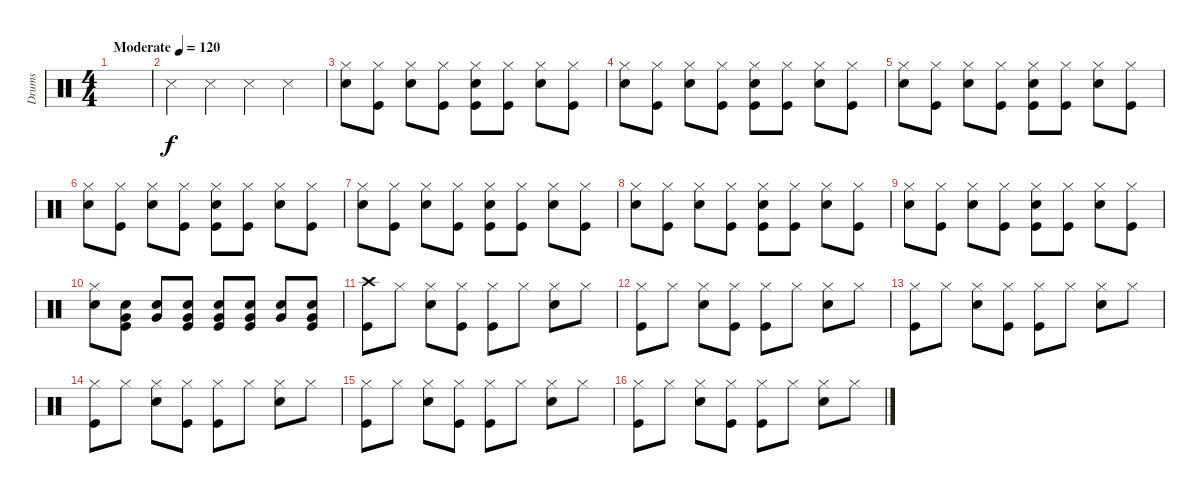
\track ("Drums" "Drums") {instrument percussion}
\staff {score}
\articulation defaults
\ts (4 4)
\tempo (120 "Moderate")
\clef neutral
\ks c
|
"Snare (side stick) 3".4 "Snare (side stick) 3".4 "Snare (side stick) 3".4 "Snare (side stick) 3".4 |
("Electric Snare (hit)" "Hi-Hat (closed)").8 ("Kick (hit)" "Hi-Hat (closed)").8 ("Electric Snare (hit)" "Hi-Hat (closed)").8 ("Kick (hit)" "Hi-Hat (closed)").8 ("Kick (hit)" "Electric Snare (hit)" "Hi-Hat (closed)").8 ("Kick (hit)" "Hi-Hat (closed)").8 ("Electric Snare (hit)" "Hi-Hat (closed)").8 ("Kick (hit)" "Hi-Hat (closed)").8 |
("Electric Snare (hit)" "Hi-Hat (closed)").8 ("Kick (hit)" "Hi-Hat (closed)").8 ("Electric Snare (hit)" "Hi-Hat (closed)").8 ("Kick (hit)" "Hi-Hat (closed)").8 ("Kick (hit)" "Electric Snare (hit)" "Hi-Hat (closed)").8 ("Kick (hit)" "Hi-Hat (closed)").8 ("Electric Snare (hit)" "Hi-Hat (closed)").8 ("Kick (hit)" "Hi-Hat (closed)").8 |
("Electric Snare (hit)" "Hi-Hat (closed)").8 ("Kick (hit)" "Hi-Hat (closed)").8 ("Electric Snare (hit)" "Hi-Hat (closed)").8 ("Kick (hit)" "Hi-Hat (closed)").8 ("Kick (hit)" "Electric Snare (hit)" "Hi-Hat (closed)").8 ("Kick (hit)" "Hi-Hat (closed)").8 ("Electric Snare (hit)" "Hi-Hat (closed)").8 ("Kick (hit)" "Hi-Hat (closed)").8 |
("Electric Snare (hit)" "Hi-Hat (closed)").8 ("Kick (hit)" "Hi-Hat (closed)").8 ("Electric Snare (hit)" "Hi-Hat (closed)").8 ("Kick (hit)" "Hi-Hat (closed)").8 ("Kick (hit)" "Electric Snare (hit)" "Hi-Hat (closed)").8 ("Kick (hit)" "Hi-Hat (closed)").8 ("Electric Snare (hit)" "Hi-Hat (closed)").8 ("Kick (hit)" "Hi-Hat (closed)").8 |
("Electric Snare (hit)" "Hi-Hat (closed)").8 ("Kick (hit)" "Hi-Hat (closed)").8 ("Electric Snare (hit)" "Hi-Hat (closed)").8 ("Kick (hit)" "Hi-Hat (closed)").8 ("Kick (hit)" "Electric Snare (hit)" "Hi-Hat (closed)").8 ("Kick (hit)" "Hi-Hat (closed)").8 ("Electric Snare (hit)" "Hi-Hat (closed)").8 ("Kick (hit)" "Hi-Hat (closed)").8 |
("Electric Snare (hit)" "Hi-Hat (closed)").8 ("Kick (hit)" "Hi-Hat (closed)").8 ("Electric Snare (hit)" "Hi-Hat (closed)").8 ("Kick (hit)" "Hi-Hat (closed)").8 ("Kick (hit)" "Electric Snare (hit)" "Hi-Hat (closed)").8 ("Kick (hit)" "Hi-Hat (closed)").8 ("Electric Snare (hit)" "Hi-Hat (closed)").8 ("Kick (hit)" "Hi-Hat (closed)").8 |
("Electric Snare (hit)" "Hi-Hat (closed)").8 ("Kick (hit)" "Hi-Hat (closed)").8 ("Electric Snare (hit)" "Hi-Hat (closed)").8 ("Kick (hit)" "Hi-Hat (closed)").8 ("Kick (hit)" "Electric Snare (hit)" "Hi-Hat (closed)").8 ("Kick (hit)" "Hi-Hat (closed)").8 ("Electric Snare (hit)" "Hi-Hat (closed)").8 ("Kick (hit)" "Hi-Hat (closed)").8 |
("Electric Snare (hit)" "Hi-Hat (closed)").8 ("Kick (hit)" "Electric Snare (hit)" "Very Low Tom (hit)").8 ("Electric Snare (hit)" "Very Low Tom (hit)").8 ("Kick (hit)" "Electric Snare (hit)" "Very Low Tom (hit)").8 ("Kick (hit)" "Electric Snare (hit)" "Very Low Tom (hit)").8 ("Kick (hit)" "Electric Snare (hit)" "Very Low Tom (hit)").8 ("Electric Snare (hit)" "Very Low Tom (hit)").8 ("Kick (hit)" "Electric Snare (hit)" "Very Low Tom (hit)").8 |
("Kick (hit)" "Crash high (hit)").8 "Hi-Hat (closed)".8 ("Electric Snare (hit)" "Hi-Hat (closed)").8 ("Kick (hit)" "Hi-Hat (closed)").8 ("Kick (hit)" "Hi-Hat (closed)").8 "Hi-Hat (closed)".8 ("Electric Snare (hit)" "Hi-Hat (closed)").8 "Hi-Hat (closed)".8 |
("Kick (hit)" "Hi-Hat (closed)").8 "Hi-Hat (closed)".8 ("Electric Snare (hit)" "Hi-Hat (closed)").8 ("Kick (hit)" "Hi-Hat (closed)").8 ("Kick (hit)" "Hi-Hat (closed)").8 "Hi-Hat (closed)".8 ("Electric Snare (hit)" "Hi-Hat (closed)").8 "Hi-Hat (closed)".8 |
("Kick (hit)" "Hi-Hat (closed)").8 "Hi-Hat (closed)".8 ("Electric Snare (hit)" "Hi-Hat (closed)").8 ("Kick (hit)" "Hi-Hat (closed)").8 ("Kick (hit)" "Hi-Hat (closed)").8 "Hi-Hat (closed)".8 ("Electric Snare (hit)" "Hi-Hat (closed)").8 "Hi-Hat (closed)".8 |
("Kick (hit)" "Hi-Hat (closed)").8 "Hi-Hat (closed)".8 ("Electric Snare (hit)" "Hi-Hat (closed)").8 ("Kick (hit)" "Hi-Hat (closed)").8 ("Kick (hit)" "Hi-Hat (closed)").8 "Hi-Hat (closed)".8 ("Electric Snare (hit)" "Hi-Hat (closed)").8 "Hi-Hat (closed)".8 |
("Kick (hit)" "Hi-Hat (closed)").8 "Hi-Hat (closed)".8 ("Electric Snare (hit)" "Hi-Hat (closed)").8 ("Kick (hit)" "Hi-Hat (closed)").8 ("Kick (hit)" "Hi-Hat (closed)").8 "Hi-Hat (closed)".8 ("Electric Snare (hit)" "Hi-Hat (closed)").8 "Hi-Hat (closed)".8 |
("Kick (hit)" "Hi-Hat (closed)").8 "Hi-Hat (closed)".8 ("Electric Snare (hit)" "Hi-Hat (closed)").8 ("Kick (hit)" "Hi-Hat (closed)").8 ("Kick (hit)" "Hi-Hat (closed)").8 "Hi-Hat (closed)".8 ("Electric Snare (hit)" "Hi-Hat (closed)").8 "Hi-Hat (closed)".8
